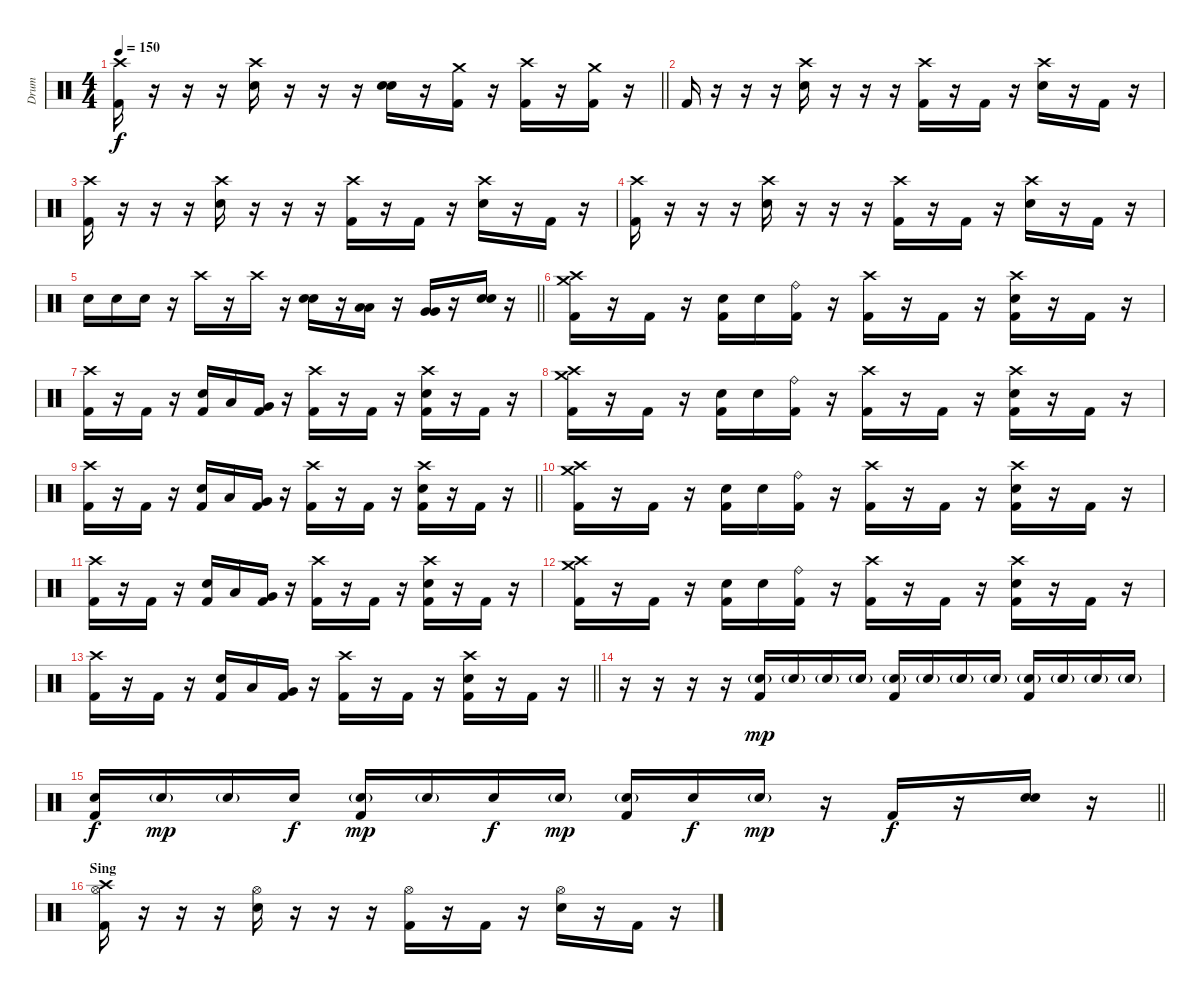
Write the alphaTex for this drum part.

\track ("Drum" "Drum") {instrument percussion}
\staff {score}
\articulation defaults
\ts (4 4)
\tempo 150
\clef neutral
\barLineRight lightlight
\ks c
("Crash high (hit)" "Kick (hit) 2").16{dy f} r.16 r.16 r.16 ("Crash high (hit)" "Electric Snare (hit)").16 r.16 r.16 r.16 ("Electric Snare (hit)" "Electric Snare (hit)").16 r.16 ("Crash medium (hit)" "Kick (hit) 2").16 r.16 ("Crash high (hit)" "Kick (hit) 2").16 r.16 ("Crash medium (hit)" "Kick (hit) 2").16 r.16 |
"Kick (hit) 2".16 r.16 r.16 r.16 ("Crash high (hit)" "Electric Snare (hit)").16 r.16 r.16 r.16 ("Crash high (hit)" "Kick (hit) 2").16 r.16 "Kick (hit) 2".16 r.16 ("Crash high (hit)" "Electric Snare (hit)").16 r.16 "Kick (hit) 2".16 r.16 |
("Crash high (hit)" "Kick (hit) 2").16 r.16 r.16 r.16 ("Crash high (hit)" "Electric Snare (hit)").16 r.16 r.16 r.16 ("Crash high (hit)" "Kick (hit) 2").16 r.16 "Kick (hit) 2".16 r.16 ("Crash high (hit)" "Electric Snare (hit)").16 r.16 "Kick (hit) 2".16 r.16 |
("Crash high (hit)" "Kick (hit) 2").16 r.16 r.16 r.16 ("Crash high (hit)" "Electric Snare (hit)").16 r.16 r.16 r.16 ("Crash high (hit)" "Kick (hit) 2").16 r.16 "Kick (hit) 2".16 r.16 ("Crash high (hit)" "Electric Snare (hit)").16 r.16 "Kick (hit) 2".16 r.16 |
\barLineRight lightlight "Electric Snare (hit)".16 "Electric Snare (hit)".16 "Electric Snare (hit)".16
r.16 "Crash high (hit)".16 r.16 "Crash high (hit)".16 r.16 ("Electric Snare (hit)" "Electric Snare (hit)").16 r.16 ("Low Floor Tom (hit)" "Low Floor Tom (hit)").16 r.16 ("Very Low Tom (hit)" "Very Low Tom (hit)").16 r.16 ("Electric Snare (hit)" "Electric Snare (hit)").16 r.16 |
("Crash high (hit)" "Crash medium (hit)" "Kick (hit) 2").16 r.16 "Kick (hit) 2".16 r.16 ("Electric Snare (hit)" "Kick (hit) 2").16 "Electric Snare (hit)".16 ("Ride (bell)" "Kick (hit) 2").16 r.16 ("Crash high (hit)" "Kick (hit) 2").16 r.16 "Kick (hit) 2".16 r.16 ("Crash high (hit)" "Electric Snare (hit)" "Kick (hit) 2").16 r.16 "Kick (hit) 2".16 r.16 |
("Crash high (hit)" "Kick (hit) 2").16 r.16 "Kick (hit) 2".16 r.16 ("Electric Snare (hit)" "Kick (hit) 2").16 "Low Floor Tom (hit)".16 ("Very Low Tom (hit)" "Kick (hit) 2").16 r.16 ("Crash high (hit)" "Kick (hit) 2").16 r.16 "Kick (hit) 2".16 r.16 ("Crash high (hit)" "Electric Snare (hit)" "Kick (hit) 2").16 r.16 "Kick (hit) 2".16 r.16 |
("Crash high (hit)" "Crash medium (hit)" "Kick (hit) 2").16 r.16 "Kick (hit) 2".16 r.16 ("Electric Snare (hit)" "Kick (hit) 2").16 "Electric Snare (hit)".16 ("Ride (bell)" "Kick (hit) 2").16 r.16 ("Crash high (hit)" "Kick (hit) 2").16 r.16 "Kick (hit) 2".16 r.16 ("Crash high (hit)" "Electric Snare (hit)" "Kick (hit) 2").16 r.16 "Kick (hit) 2".16 r.16 |
\barLineRight lightlight
("Crash high (hit)" "Kick (hit) 2").16 r.16 "Kick (hit) 2".16 r.16 ("Electric Snare (hit)" "Kick (hit) 2").16 "Low Floor Tom (hit)".16 ("Very Low Tom (hit)" "Kick (hit) 2").16 r.16 ("Crash high (hit)" "Kick (hit) 2").16 r.16 "Kick (hit) 2".16 r.16 ("Crash high (hit)" "Electric Snare (hit)" "Kick (hit) 2").16 r.16 "Kick (hit) 2".16 r.16 |
("Crash high (hit)" "Crash medium (hit)" "Kick (hit) 2").16 r.16 "Kick (hit) 2".16 r.16 ("Electric Snare (hit)" "Kick (hit) 2").16 "Electric Snare (hit)".16 ("Ride (bell)" "Kick (hit) 2").16 r.16 ("Crash high (hit)" "Kick (hit) 2").16 r.16 "Kick (hit) 2".16 r.16 ("Crash high (hit)" "Electric Snare (hit)" "Kick (hit) 2").16 r.16 "Kick (hit) 2".16 r.16 |
("Crash high (hit)" "Kick (hit) 2").16 r.16 "Kick (hit) 2".16 r.16 ("Electric Snare (hit)" "Kick (hit) 2").16 "Low Floor Tom (hit)".16 ("Very Low Tom (hit)" "Kick (hit) 2").16 r.16 ("Crash high (hit)" "Kick (hit) 2").16 r.16 "Kick (hit) 2".16 r.16 ("Crash high (hit)" "Electric Snare (hit)" "Kick (hit) 2").16 r.16 "Kick (hit) 2".16 r.16 |
("Crash high (hit)" "Crash medium (hit)" "Kick (hit) 2").16 r.16 "Kick (hit) 2".16 r.16 ("Electric Snare (hit)" "Kick (hit) 2").16 "Electric Snare (hit)".16 ("Ride (bell)" "Kick (hit) 2").16 r.16 ("Crash high (hit)" "Kick (hit) 2").16 r.16 "Kick (hit) 2".16 r.16 ("Crash high (hit)" "Electric Snare (hit)" "Kick (hit) 2").16 r.16 "Kick (hit) 2".16 r.16 |
\barLineRight lightlight
("Crash high (hit)" "Kick (hit) 2").16 r.16 "Kick (hit) 2".16 r.16 ("Electric Snare (hit)" "Kick (hit) 2").16 "Low Floor Tom (hit)".16 ("Very Low Tom (hit)" "Kick (hit) 2").16 r.16 ("Crash high (hit)" "Kick (hit) 2").16 r.16 "Kick (hit) 2".16 r.16 ("Crash high (hit)" "Electric Snare (hit)" "Kick (hit) 2").16 r.16 "Kick (hit) 2".16 r.16 |
r.16 r.16 r.16 r.16 ("Electric Snare (hit)"{g} "Kick (hit) 2").16{dy mp} "Electric Snare (hit)"{g}.16 "Electric Snare (hit)"{g}.16 "Electric Snare (hit)"{g}.16 ("Electric Snare (hit)"{g} "Kick (hit) 2").16 "Electric Snare (hit)"{g}.16 "Electric Snare (hit)"{g}.16 "Electric Snare (hit)"{g}.16 ("Electric Snare (hit)"{g} "Kick (hit) 2").16 "Electric Snare (hit)"{g}.16 "Electric Snare (hit)"{g}.16 "Electric Snare (hit)"{g}.16 |
\barLineRight lightlight
("Electric Snare (hit)" "Kick (hit) 2").16{dy f} "Electric Snare (hit)"{g}.16{dy mp} "Electric Snare (hit)"{g}.16 "Electric Snare (hit)".16{dy f} ("Electric Snare (hit)"{g} "Kick (hit) 2").16{dy mp} "Electric Snare (hit)"{g}.16 "Electric Snare (hit)".16{dy f} "Electric Snare (hit)"{g}.16{dy mp} ("Electric Snare (hit)"{g} "Kick (hit) 2").16 "Electric Snare (hit)".16{dy f} "Electric Snare (hit)"{g}.16{dy mp} r.16 "Kick (hit) 2".16{dy f} r.16 ("Electric Snare (hit)" "Electric Snare (hit)").16 r.16 |
\section ("" "Sing")
("Hi-Hat (open)" "Crash high (hit)" "Kick (hit) 2").16 r.16 r.16 r.16 ("Hi-Hat (open)" "Electric Snare (hit)").16 r.16 r.16 r.16 ("Hi-Hat (open)" "Kick (hit) 2").16 r.16 "Kick (hit) 2".16 r.16 ("Hi-Hat (open)" "Electric Snare (hit)").16 r.16 "Kick (hit) 2".16 r.16
